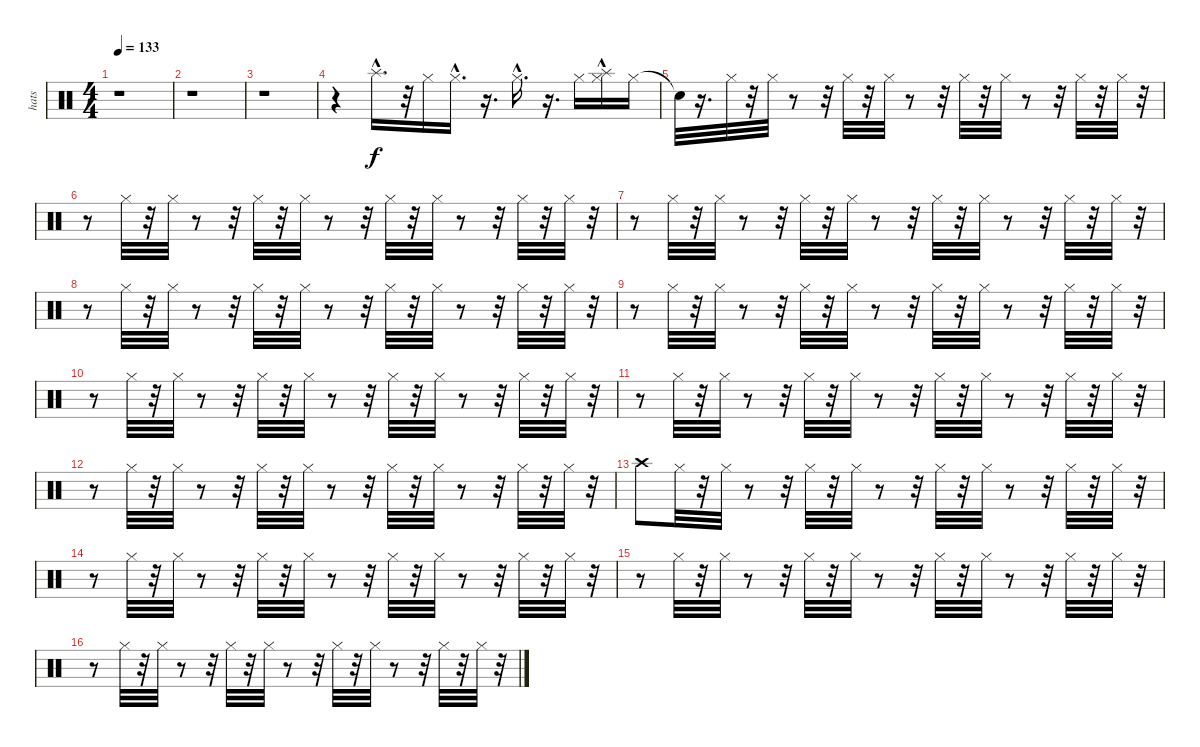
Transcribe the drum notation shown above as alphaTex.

\track ("hats" "hats") {instrument percussion}
\staff {score}
\articulation defaults
\ts (4 4)
\tempo 133
\clef neutral
\ks c
r.1{dy f} |
r.1 |
r.1 |
r.4 "Splash (hit)"{hac}.16{d} r.32 "Hi-Hat (closed)".16 "Hi-Hat (closed)"{hac}.16{d} r.16{d} "Hi-Hat (closed)"{hac}.16{d} r.16{d} "Hi-Hat (closed)".16 ("Hi-Hat (closed)" "Splash (hit)"{hac}).16 "Hi-Hat (closed)".16 |
"Snare (hit)"{t}.32 r.16{d} "Hi-Hat (closed)".32 r.32 "Hi-Hat (closed)".32 r.8 r.32 "Hi-Hat (closed)".32 r.32 "Hi-Hat (closed)".32 r.8 r.32 "Hi-Hat (closed)".32 r.32 "Hi-Hat (closed)".32 r.8 r.32 "Hi-Hat (closed)".32 r.32 "Hi-Hat (closed)".32 r.32 |
r.8 "Hi-Hat (closed)".32 r.32 "Hi-Hat (closed)".32 r.8 r.32 "Hi-Hat (closed)".32 r.32 "Hi-Hat (closed)".32 r.8 r.32 "Hi-Hat (closed)".32 r.32 "Hi-Hat (closed)".32 r.8 r.32 "Hi-Hat (closed)".32 r.32 "Hi-Hat (closed)".32 r.32 |
r.8 "Hi-Hat (closed)".32 r.32 "Hi-Hat (closed)".32 r.8 r.32 "Hi-Hat (closed)".32 r.32 "Hi-Hat (closed)".32 r.8 r.32 "Hi-Hat (closed)".32 r.32 "Hi-Hat (closed)".32 r.8 r.32 "Hi-Hat (closed)".32 r.32 "Hi-Hat (closed)".32 r.32 |
r.8 "Hi-Hat (closed)".32 r.32 "Hi-Hat (closed)".32 r.8 r.32 "Hi-Hat (closed)".32 r.32 "Hi-Hat (closed)".32 r.8 r.32 "Hi-Hat (closed)".32 r.32 "Hi-Hat (closed)".32 r.8 r.32 "Hi-Hat (closed)".32 r.32 "Hi-Hat (closed)".32 r.32 |
r.8 "Hi-Hat (closed)".32 r.32 "Hi-Hat (closed)".32 r.8 r.32 "Hi-Hat (closed)".32 r.32 "Hi-Hat (closed)".32 r.8 r.32 "Hi-Hat (closed)".32 r.32 "Hi-Hat (closed)".32 r.8 r.32 "Hi-Hat (closed)".32 r.32 "Hi-Hat (closed)".32 r.32 |
r.8 "Hi-Hat (closed)".32 r.32 "Hi-Hat (closed)".32 r.8 r.32 "Hi-Hat (closed)".32 r.32 "Hi-Hat (closed)".32 r.8 r.32 "Hi-Hat (closed)".32 r.32 "Hi-Hat (closed)".32 r.8 r.32 "Hi-Hat (closed)".32 r.32 "Hi-Hat (closed)".32 r.32 |
r.8 "Hi-Hat (closed)".32 r.32 "Hi-Hat (closed)".32 r.8 r.32 "Hi-Hat (closed)".32 r.32 "Hi-Hat (closed)".32 r.8 r.32 "Hi-Hat (closed)".32 r.32 "Hi-Hat (closed)".32 r.8 r.32 "Hi-Hat (closed)".32 r.32 "Hi-Hat (closed)".32 r.32 |
r.8 "Hi-Hat (closed)".32 r.32 "Hi-Hat (closed)".32 r.8 r.32 "Hi-Hat (closed)".32 r.32 "Hi-Hat (closed)".32 r.8 r.32 "Hi-Hat (closed)".32 r.32 "Hi-Hat (closed)".32 r.8 r.32 "Hi-Hat (closed)".32 r.32 "Hi-Hat (closed)".32 r.32 |
"Crash high (hit)".8 "Hi-Hat (closed)".32 r.32 "Hi-Hat (closed)".32 r.8 r.32 "Hi-Hat (closed)".32 r.32 "Hi-Hat (closed)".32 r.8 r.32 "Hi-Hat (closed)".32 r.32 "Hi-Hat (closed)".32 r.8 r.32 "Hi-Hat (closed)".32 r.32 "Hi-Hat (closed)".32 r.32 |
r.8 "Hi-Hat (closed)".32 r.32 "Hi-Hat (closed)".32 r.8 r.32 "Hi-Hat (closed)".32 r.32 "Hi-Hat (closed)".32 r.8 r.32 "Hi-Hat (closed)".32 r.32 "Hi-Hat (closed)".32 r.8 r.32 "Hi-Hat (closed)".32 r.32 "Hi-Hat (closed)".32 r.32 |
r.8 "Hi-Hat (closed)".32 r.32 "Hi-Hat (closed)".32 r.8 r.32 "Hi-Hat (closed)".32 r.32 "Hi-Hat (closed)".32 r.8 r.32 "Hi-Hat (closed)".32 r.32 "Hi-Hat (closed)".32 r.8 r.32 "Hi-Hat (closed)".32 r.32 "Hi-Hat (closed)".32 r.32 |
r.8 "Hi-Hat (closed)".32 r.32 "Hi-Hat (closed)".32 r.8 r.32 "Hi-Hat (closed)".32 r.32 "Hi-Hat (closed)".32 r.8 r.32 "Hi-Hat (closed)".32 r.32 "Hi-Hat (closed)".32 r.8 r.32 "Hi-Hat (closed)".32 r.32 "Hi-Hat (closed)".32 r.32
